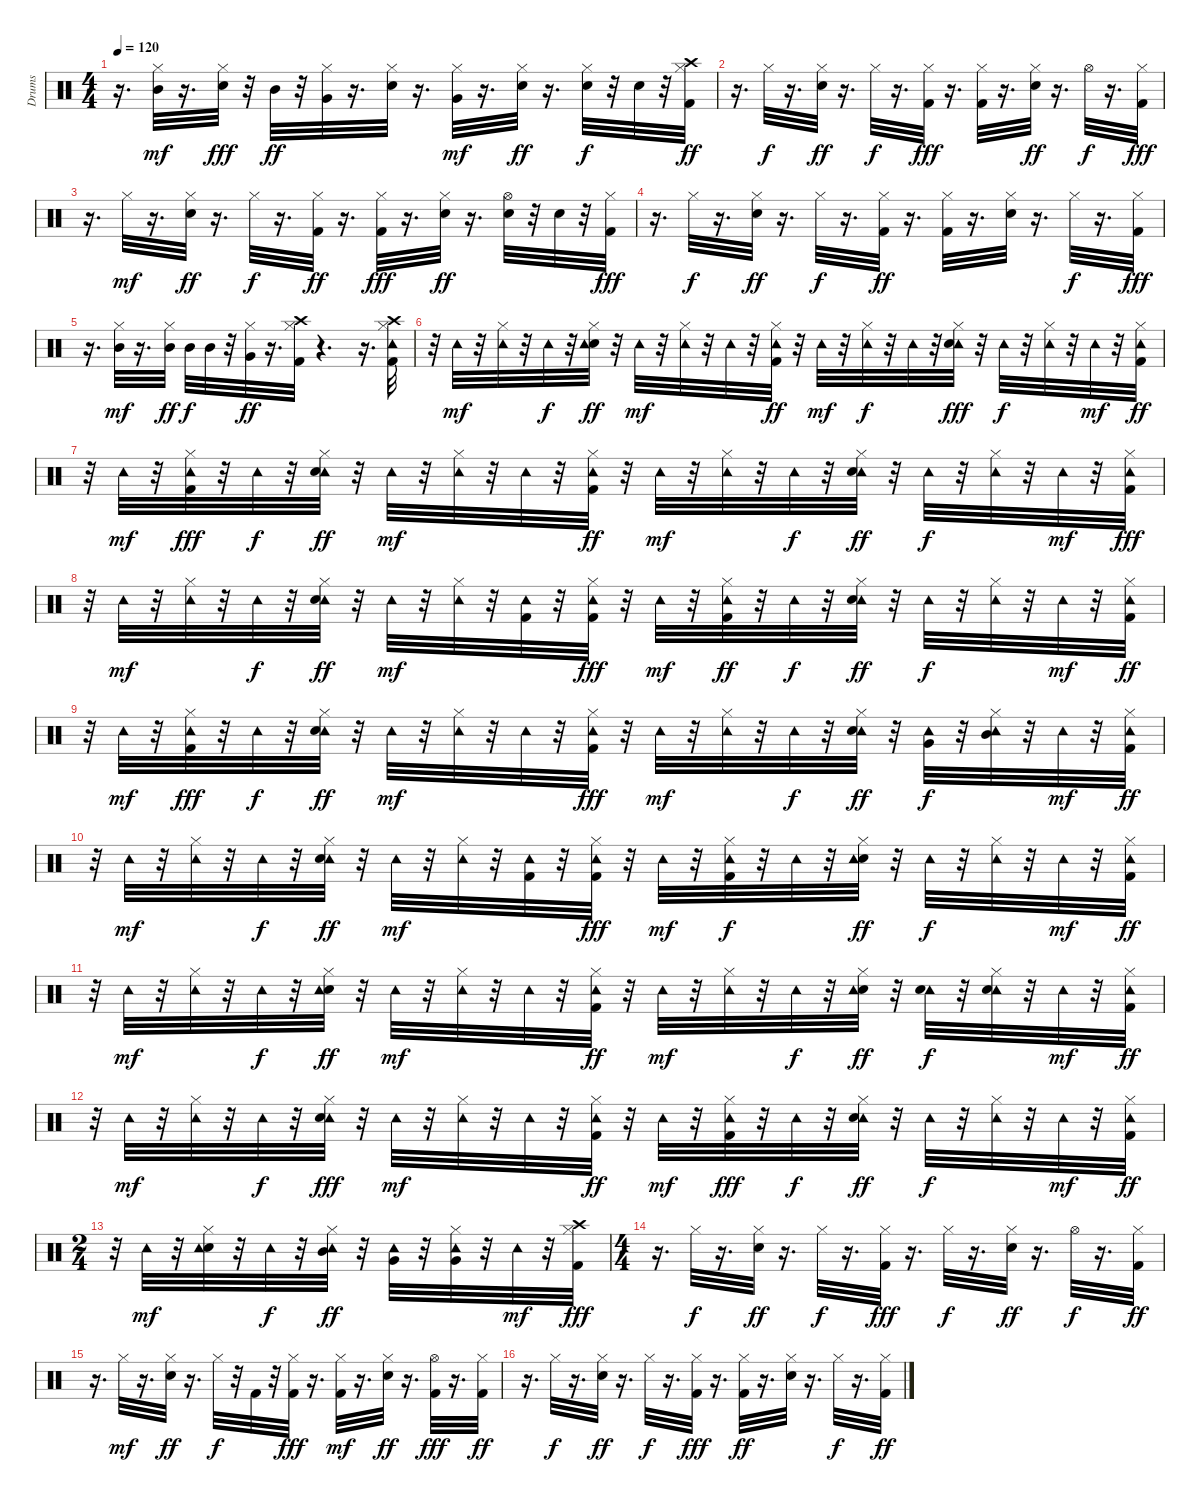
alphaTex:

\track ("Drums" "Drums") {instrument percussion}
\staff {score}
\articulation defaults
\ts (4 4)
\tempo 120
\clef neutral
\ks c
r.16{d dy ff} ("Mid Tom (hit)" "Hi-Hat (closed)").32{dy mf} r.16{d} ("Hi-Hat (closed)" "Snare (hit) 2").32{dy fff} r.32 "Mid Tom (hit)".32{dy ff} r.32 ("Very Low Tom (hit)" "Hi-Hat (closed)").32 r.16{d} ("Snare (hit) 2" "Hi-Hat (closed)").32 r.16{d} ("Very Low Tom (hit)" "Hi-Hat (closed)").32{dy mf} r.16{d} ("Snare (hit) 2" "Hi-Hat (closed)").32{dy ff} r.16{d} ("Snare (hit) 2" "Hi-Hat (closed)").32{dy f} r.32 "Snare (hit) 2".32 r.32 ("Crash high (hit)" "Kick (hit) 2" "Hi-Hat (closed)").32{dy ff} |
r.16{d} "Hi-Hat (closed)".32{dy f} r.16{d} ("Snare (hit) 2" "Hi-Hat (closed)").32{dy ff} r.16{d} "Hi-Hat (closed)".32{dy f} r.16{d} ("Hi-Hat (closed)" "Kick (hit) 2").32{dy fff} r.16{d} ("Hi-Hat (closed)" "Kick (hit) 2").32 r.16{d} ("Snare (hit) 2" "Hi-Hat (closed)").32{dy ff} r.16{d} "Hi-Hat (open)".32{dy f} r.16{d} ("Hi-Hat (closed)" "Kick (hit) 2").32{dy fff} |
r.16{d} "Hi-Hat (closed)".32{dy mf} r.16{d} ("Snare (hit) 2" "Hi-Hat (closed)").32{dy ff} r.16{d} "Hi-Hat (closed)".32{dy f} r.16{d} ("Kick (hit) 2" "Hi-Hat (closed)").32{dy ff} r.16{d} ("Hi-Hat (closed)" "Kick (hit) 2").32{dy fff} r.16{d} ("Snare (hit) 2" "Hi-Hat (closed)").32{dy ff} r.16{d} ("Snare (hit) 2" "Hi-Hat (open)").32 r.32 "Snare (hit) 2".32 r.32 ("Hi-Hat (closed)" "Kick (hit) 2").32{dy fff} |
r.16{d} "Hi-Hat (closed)".32{dy f} r.16{d} ("Snare (hit) 2" "Hi-Hat (closed)").32{dy ff} r.16{d} "Hi-Hat (closed)".32{dy f} r.16{d} ("Kick (hit) 2" "Hi-Hat (closed)").32{dy ff} r.16{d} ("Kick (hit) 2" "Hi-Hat (closed)").32 r.16{d} ("Snare (hit) 2" "Hi-Hat (closed)").32 r.16{d} "Hi-Hat (closed)".32{dy f} r.16{d} ("Hi-Hat (closed)" "Kick (hit) 2").32{dy fff} |
r.16{d} ("Mid Tom (hit)" "Hi-Hat (closed)").32{dy mf} r.16{d} ("Mid Tom (hit)" "Hi-Hat (closed)").32{dy ff} "Mid Tom (hit)".32{dy f} "Mid Tom (hit)".32 r.32 ("Hi-Hat (closed)" "Very Low Tom (hit)").32{dy ff} r.16{d} ("Crash high (hit)" "Kick (hit) 2" "Hi-Hat (closed)").32 r.4{d} r.16{d} ("Tambourine (hit)" "Crash high (hit)" "Kick (hit) 2" "Hi-Hat (closed)").32 |
r.32 "Tambourine (hit)".32{dy mf} r.32 ("Tambourine (hit)" "Hi-Hat (closed)").32 r.32 "Tambourine (hit)".32{dy f} r.32 ("Snare (hit) 2" "Tambourine (hit)" "Hi-Hat (closed)").32{dy ff} r.32 "Tambourine (hit)".32{dy mf} r.32 ("Tambourine (hit)" "Hi-Hat (closed)").32 r.32 "Tambourine (hit)".32 r.32 ("Tambourine (hit)" "Kick (hit) 2" "Hi-Hat (closed)").32{dy ff} r.32 "Tambourine (hit)".32{dy mf} r.32 ("Tambourine (hit)" "Hi-Hat (closed)").32{dy f} r.32 "Tambourine (hit)".32 r.32 ("Tambourine (hit)" "Hi-Hat (closed)" "Snare (hit) 2").32{dy fff} r.32 "Tambourine (hit)".32{dy f} r.32 ("Tambourine (hit)" "Hi-Hat (closed)").32 r.32 "Tambourine (hit)".32{dy mf} r.32 ("Tambourine (hit)" "Kick (hit) 2" "Hi-Hat (closed)").32{dy ff} |
r.32 "Tambourine (hit)".32{dy mf} r.32 ("Tambourine (hit)" "Hi-Hat (closed)" "Kick (hit) 2").32{dy fff} r.32 "Tambourine (hit)".32{dy f} r.32 ("Tambourine (hit)" "Snare (hit) 2" "Hi-Hat (closed)").32{dy ff} r.32 "Tambourine (hit)".32{dy mf} r.32 ("Tambourine (hit)" "Hi-Hat (closed)").32 r.32 "Tambourine (hit)".32 r.32 ("Tambourine (hit)" "Kick (hit) 2" "Hi-Hat (closed)").32{dy ff} r.32 "Tambourine (hit)".32{dy mf} r.32 ("Tambourine (hit)" "Hi-Hat (closed)").32 r.32 "Tambourine (hit)".32{dy f} r.32 ("Tambourine (hit)" "Snare (hit) 2" "Hi-Hat (closed)").32{dy ff} r.32 "Tambourine (hit)".32{dy f} r.32 ("Tambourine (hit)" "Hi-Hat (closed)").32 r.32 "Tambourine (hit)".32{dy mf} r.32 ("Tambourine (hit)" "Hi-Hat (closed)" "Kick (hit) 2").32{dy fff} |
r.32 "Tambourine (hit)".32{dy mf} r.32 ("Tambourine (hit)" "Hi-Hat (closed)").32 r.32 "Tambourine (hit)".32{dy f} r.32 ("Tambourine (hit)" "Snare (hit) 2" "Hi-Hat (closed)").32{dy ff} r.32 "Tambourine (hit)".32{dy mf} r.32 ("Tambourine (hit)" "Hi-Hat (closed)").32 r.32 ("Tambourine (hit)" "Kick (hit) 2").32 r.32 ("Tambourine (hit)" "Hi-Hat (closed)" "Kick (hit) 2").32{dy fff} r.32 "Tambourine (hit)".32{dy mf} r.32 ("Tambourine (hit)" "Kick (hit) 2" "Hi-Hat (closed)").32{dy ff} r.32 "Tambourine (hit)".32{dy f} r.32 ("Tambourine (hit)" "Snare (hit) 2" "Hi-Hat (closed)").32{dy ff} r.32 "Tambourine (hit)".32{dy f} r.32 ("Tambourine (hit)" "Hi-Hat (closed)").32 r.32 "Tambourine (hit)".32{dy mf} r.32 ("Kick (hit) 2" "Tambourine (hit)" "Hi-Hat (closed)").32{dy ff} |
r.32 "Tambourine (hit)".32{dy mf} r.32 ("Tambourine (hit)" "Hi-Hat (closed)" "Kick (hit) 2").32{dy fff} r.32 "Tambourine (hit)".32{dy f} r.32 ("Tambourine (hit)" "Snare (hit) 2" "Hi-Hat (closed)").32{dy ff} r.32 "Tambourine (hit)".32{dy mf} r.32 ("Tambourine (hit)" "Hi-Hat (closed)").32 r.32 "Tambourine (hit)".32 r.32 ("Tambourine (hit)" "Hi-Hat (closed)" "Kick (hit) 2").32{dy fff} r.32 "Tambourine (hit)".32{dy mf} r.32 ("Tambourine (hit)" "Hi-Hat (closed)").32 r.32 "Tambourine (hit)".32{dy f} r.32 ("Tambourine (hit)" "Snare (hit) 2" "Hi-Hat (closed)").32{dy ff} r.32 ("Tambourine (hit)" "Very Low Tom (hit)").32{dy f} r.32 ("Tambourine (hit)" "Mid Tom (hit)" "Hi-Hat (closed)").32 r.32 "Tambourine (hit)".32{dy mf} r.32 ("Tambourine (hit)" "Kick (hit) 2" "Hi-Hat (closed)").32{dy ff} |
r.32 "Tambourine (hit)".32{dy mf} r.32 ("Tambourine (hit)" "Hi-Hat (closed)").32 r.32 "Tambourine (hit)".32{dy f} r.32 ("Tambourine (hit)" "Snare (hit) 2" "Hi-Hat (closed)").32{dy ff} r.32 "Tambourine (hit)".32{dy mf} r.32 ("Tambourine (hit)" "Hi-Hat (closed)").32 r.32 ("Tambourine (hit)" "Kick (hit) 2").32 r.32 ("Tambourine (hit)" "Hi-Hat (closed)" "Kick (hit) 2").32{dy fff} r.32 "Tambourine (hit)".32{dy mf} r.32 ("Tambourine (hit)" "Kick (hit) 2" "Hi-Hat (closed)").32{dy f} r.32 "Tambourine (hit)".32 r.32 ("Snare (hit) 2" "Tambourine (hit)" "Hi-Hat (closed)").32{dy ff} r.32 "Tambourine (hit)".32{dy f} r.32 ("Tambourine (hit)" "Hi-Hat (closed)").32 r.32 "Tambourine (hit)".32{dy mf} r.32 ("Tambourine (hit)" "Kick (hit) 2" "Hi-Hat (closed)").32{dy ff} |
r.32 "Tambourine (hit)".32{dy mf} r.32 ("Tambourine (hit)" "Hi-Hat (closed)").32 r.32 "Tambourine (hit)".32{dy f} r.32 ("Snare (hit) 2" "Tambourine (hit)" "Hi-Hat (closed)").32{dy ff} r.32 "Tambourine (hit)".32{dy mf} r.32 ("Tambourine (hit)" "Hi-Hat (closed)").32 r.32 "Tambourine (hit)".32 r.32 ("Tambourine (hit)" "Kick (hit) 2" "Hi-Hat (closed)").32{dy ff} r.32 "Tambourine (hit)".32{dy mf} r.32 ("Tambourine (hit)" "Hi-Hat (closed)").32 r.32 "Tambourine (hit)".32{dy f} r.32 ("Snare (hit) 2" "Tambourine (hit)" "Hi-Hat (closed)").32{dy ff} r.32 ("Tambourine (hit)" "Snare (hit) 2").32{dy f} r.32 ("Tambourine (hit)" "Snare (hit) 2" "Hi-Hat (closed)").32 r.32 "Tambourine (hit)".32{dy mf} r.32 ("Tambourine (hit)" "Kick (hit) 2" "Hi-Hat (closed)").32{dy ff} |
r.32 "Tambourine (hit)".32{dy mf} r.32 ("Tambourine (hit)" "Hi-Hat (closed)").32 r.32 "Tambourine (hit)".32{dy f} r.32 ("Tambourine (hit)" "Hi-Hat (closed)" "Snare (hit) 2").32{dy fff} r.32 "Tambourine (hit)".32{dy mf} r.32 ("Tambourine (hit)" "Hi-Hat (closed)").32 r.32 "Tambourine (hit)".32 r.32 ("Tambourine (hit)" "Kick (hit) 2" "Hi-Hat (closed)").32{dy ff} r.32 "Tambourine (hit)".32{dy mf} r.32 ("Tambourine (hit)" "Hi-Hat (closed)" "Kick (hit) 2").32{dy fff} r.32 "Tambourine (hit)".32{dy f} r.32 ("Tambourine (hit)" "Snare (hit) 2" "Hi-Hat (closed)").32{dy ff} r.32 "Tambourine (hit)".32{dy f} r.32 ("Tambourine (hit)" "Hi-Hat (closed)").32 r.32 "Tambourine (hit)".32{dy mf} r.32 ("Tambourine (hit)" "Kick (hit) 2" "Hi-Hat (closed)").32{dy ff} |
\ts (2 4)
r.32 "Tambourine (hit)".32{dy mf} r.32 ("Snare (hit) 2" "Tambourine (hit)" "Hi-Hat (closed)").32 r.32 "Tambourine (hit)".32{dy f} r.32 ("Tambourine (hit)" "Mid Tom (hit)" "Hi-Hat (closed)").32{dy ff} r.32 ("Tambourine (hit)" "Very Low Tom (hit)").32 r.32 ("Tambourine (hit)" "Very Low Tom (hit)" "Hi-Hat (closed)").32 r.32 "Tambourine (hit)".32{dy mf} r.32 ("Crash high (hit)" "Hi-Hat (closed)" "Kick (hit) 2").32{dy fff} |
\ts (4 4)
r.16{d} "Hi-Hat (closed)".32{dy f} r.16{d} ("Snare (hit) 2" "Hi-Hat (closed)").32{dy ff} r.16{d} "Hi-Hat (closed)".32{dy f} r.16{d} ("Hi-Hat (closed)" "Kick (hit) 2").32{dy fff} r.16{d} "Hi-Hat (closed)".32{dy f} r.16{d} ("Snare (hit) 2" "Hi-Hat (closed)").32{dy ff} r.16{d} "Hi-Hat (open)".32{dy f} r.16{d} ("Kick (hit) 2" "Hi-Hat (closed)").32{dy ff} |
r.16{d} "Hi-Hat (closed)".32{dy mf} r.16{d} ("Snare (hit) 2" "Hi-Hat (closed)").32{dy ff} r.16{d} "Hi-Hat (closed)".32{dy f} r.32 "Kick (hit) 2".32 r.32 ("Hi-Hat (closed)" "Kick (hit) 2").32{dy fff} r.16{d} ("Kick (hit) 2" "Hi-Hat (closed)").32{dy mf} r.16{d} ("Snare (hit) 2" "Hi-Hat (closed)").32{dy ff} r.16{d} ("Hi-Hat (open)" "Kick (hit) 2").32{dy fff} r.16{d} ("Kick (hit) 2" "Hi-Hat (closed)").32{dy ff} |
r.16{d} "Hi-Hat (closed)".32{dy f} r.16{d} ("Snare (hit) 2" "Hi-Hat (closed)").32{dy ff} r.16{d} "Hi-Hat (closed)".32{dy f} r.16{d} ("Hi-Hat (closed)" "Kick (hit) 2").32{dy fff} r.16{d} ("Kick (hit) 2" "Hi-Hat (closed)").32{dy ff} r.16{d} ("Snare (hit) 2" "Hi-Hat (closed)").32 r.16{d} "Hi-Hat (closed)".32{dy f} r.16{d} ("Kick (hit) 2" "Hi-Hat (closed)").32{dy ff}
